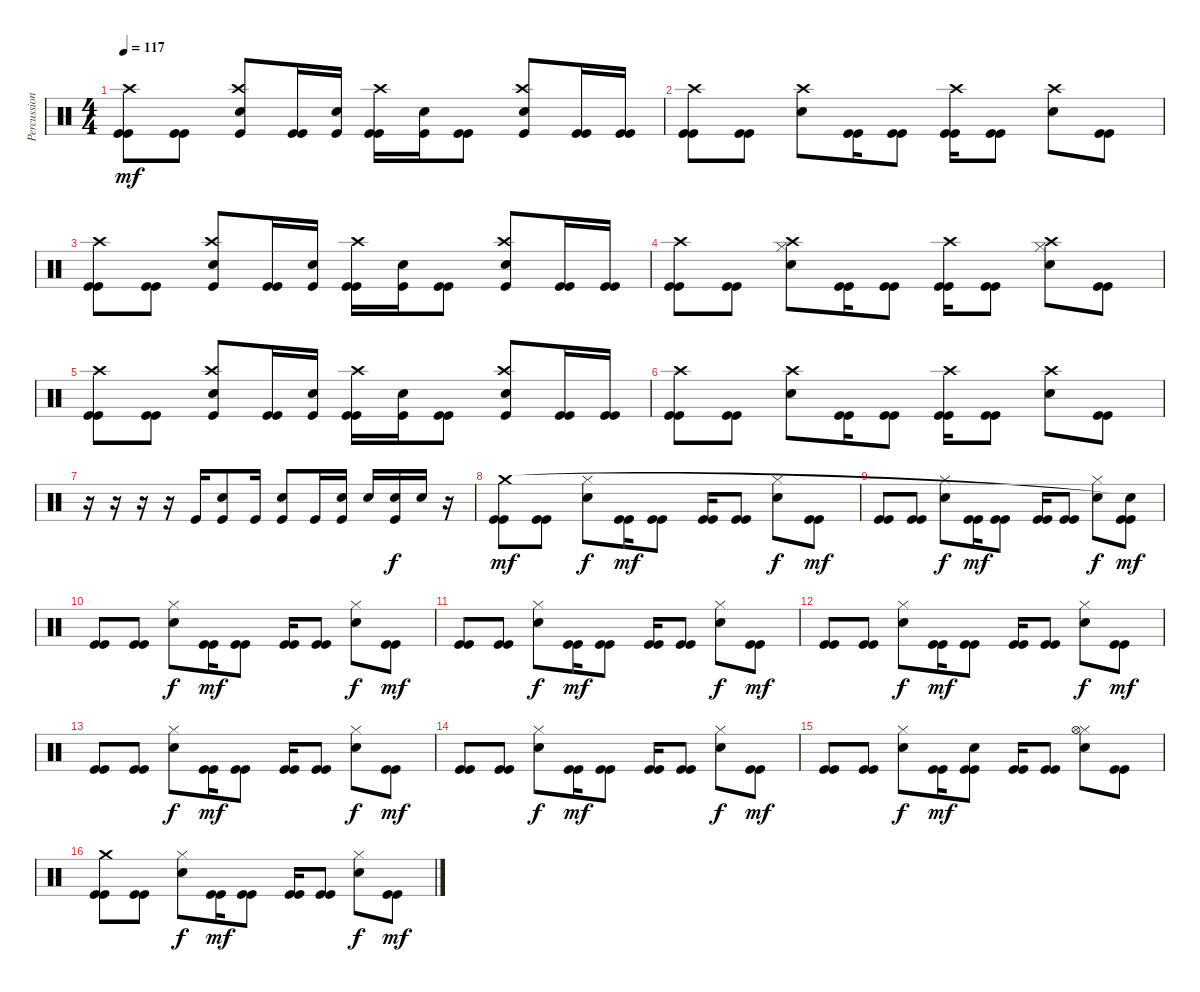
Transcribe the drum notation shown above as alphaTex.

\track ("Percussion" "Percussion") {instrument percussion}
\staff {score}
\articulation defaults
\ts (4 4)
\tempo 117
\clef neutral
\ks c
("Kick (hit)" "Kick (hit)" "Crash high (hit)").8{dy mf} ("Kick (hit)" "Kick (hit)").8 ("Kick (hit)" "Electric Snare (hit)" "Crash high (hit)").8 ("Kick (hit)" "Kick (hit)").16 ("Kick (hit)" "Electric Snare (hit)").16 ("Kick (hit)" "Kick (hit)" "Crash high (hit)").16 ("Kick (hit)" "Electric Snare (hit)").16 ("Kick (hit)" "Kick (hit)").8 ("Kick (hit)" "Electric Snare (hit)" "Crash high (hit)").8 ("Kick (hit)" "Kick (hit)").16 ("Kick (hit)" "Kick (hit)").16 |
("Kick (hit)" "Kick (hit)" "Crash high (hit)").8 ("Kick (hit)" "Kick (hit)").8 ("Electric Snare (hit)" "Crash high (hit)").8 ("Kick (hit)" "Kick (hit)").16 ("Kick (hit)" "Kick (hit)").8 ("Kick (hit)" "Kick (hit)" "Crash high (hit)").16 ("Kick (hit)" "Kick (hit)").8 ("Electric Snare (hit)" "Crash high (hit)").8 ("Kick (hit)" "Kick (hit)").8 |
("Crash high (hit)" "Kick (hit)" "Kick (hit)").8 ("Kick (hit)" "Kick (hit)").8 ("Crash high (hit)" "Kick (hit)" "Electric Snare (hit)").8 ("Kick (hit)" "Kick (hit)").16 ("Kick (hit)" "Electric Snare (hit)").16 ("Crash high (hit)" "Kick (hit)" "Kick (hit)").16 ("Kick (hit)" "Electric Snare (hit)").16 ("Kick (hit)" "Kick (hit)").8 ("Crash high (hit)" "Kick (hit)" "Electric Snare (hit)").8 ("Kick (hit)" "Kick (hit)").16 ("Kick (hit)" "Kick (hit)").16 |
("Kick (hit)" "Kick (hit)" "Crash high (hit)").8 ("Kick (hit)" "Kick (hit)").8 ("Electric Snare (hit)" "Hi-Hat (closed)" "Crash high (hit)").8 ("Kick (hit)" "Kick (hit)").16 ("Kick (hit)" "Kick (hit)").8 ("Kick (hit)" "Kick (hit)" "Crash high (hit)").16 ("Kick (hit)" "Kick (hit)").8 ("Electric Snare (hit)" "Hi-Hat (closed)" "Crash high (hit)").8 ("Kick (hit)" "Kick (hit)").8 |
("Kick (hit)" "Kick (hit)" "Crash high (hit)").8 ("Kick (hit)" "Kick (hit)").8 ("Kick (hit)" "Electric Snare (hit)" "Crash high (hit)").8 ("Kick (hit)" "Kick (hit)").16 ("Kick (hit)" "Electric Snare (hit)").16 ("Kick (hit)" "Kick (hit)" "Crash high (hit)").16 ("Kick (hit)" "Electric Snare (hit)").16 ("Kick (hit)" "Kick (hit)").8 ("Kick (hit)" "Electric Snare (hit)" "Crash high (hit)").8 ("Kick (hit)" "Kick (hit)").16 ("Kick (hit)" "Kick (hit)").16 |
("Kick (hit)" "Kick (hit)" "Crash high (hit)").8 ("Kick (hit)" "Kick (hit)").8 ("Electric Snare (hit)" "Crash high (hit)").8 ("Kick (hit)" "Kick (hit)").16 ("Kick (hit)" "Kick (hit)").8 ("Kick (hit)" "Kick (hit)" "Crash high (hit)").16 ("Kick (hit)" "Kick (hit)").8 ("Electric Snare (hit)" "Crash high (hit)").8 ("Kick (hit)" "Kick (hit)").8 |
r.16 r.16 r.16 r.16 "Kick (hit)".16 ("Electric Snare (hit)" "Kick (hit)").8 "Kick (hit)".16 ("Electric Snare (hit)" "Kick (hit)").8 "Kick (hit)".16 ("Electric Snare (hit)" "Kick (hit)").16 "Electric Snare (hit)".16 ("Electric Snare (hit)" "Kick (hit)").16{dy f} "Electric Snare (hit)".16 r.16 |
("Kick (hit)" "Kick (hit)" "Crash medium (hit)").8{dy mf} ("Kick (hit)" "Kick (hit)").8 ("Electric Snare (hit)" "Hi-Hat (closed)").8{dy f} ("Kick (hit)" "Kick (hit)").16{dy mf} ("Kick (hit)" "Kick (hit)").8 ("Kick (hit)" "Kick (hit)").16 ("Kick (hit)" "Kick (hit)").8 ("Electric Snare (hit)" "Hi-Hat (closed)").8{dy f} ("Kick (hit)" "Kick (hit)").8{dy mf} |
("Kick (hit)" "Kick (hit)").8 ("Kick (hit)" "Kick (hit)").8 ("Electric Snare (hit)" "Hi-Hat (closed)").8{dy f} ("Kick (hit)" "Kick (hit)").16{dy mf} ("Kick (hit)" "Kick (hit)").8 ("Kick (hit)" "Kick (hit)").16 ("Kick (hit)" "Kick (hit)").8 ("Electric Snare (hit)" "Hi-Hat (closed)").8{dy f} ("Kick (hit)" "Kick (hit)" "Snare (hit)"{t}).8{dy mf} |
("Kick (hit)" "Kick (hit)").8 ("Kick (hit)" "Kick (hit)").8 ("Electric Snare (hit)" "Hi-Hat (closed)").8{dy f} ("Kick (hit)" "Kick (hit)").16{dy mf} ("Kick (hit)" "Kick (hit)").8 ("Kick (hit)" "Kick (hit)").16 ("Kick (hit)" "Kick (hit)").8 ("Electric Snare (hit)" "Hi-Hat (closed)").8{dy f} ("Kick (hit)" "Kick (hit)").8{dy mf} |
("Kick (hit)" "Kick (hit)").8 ("Kick (hit)" "Kick (hit)").8 ("Electric Snare (hit)" "Hi-Hat (closed)").8{dy f} ("Kick (hit)" "Kick (hit)").16{dy mf} ("Kick (hit)" "Kick (hit)").8 ("Kick (hit)" "Kick (hit)").16 ("Kick (hit)" "Kick (hit)").8 ("Electric Snare (hit)" "Hi-Hat (closed)").8{dy f} ("Kick (hit)" "Kick (hit)").8{dy mf} |
("Kick (hit)" "Kick (hit)").8 ("Kick (hit)" "Kick (hit)").8 ("Electric Snare (hit)" "Hi-Hat (closed)").8{dy f} ("Kick (hit)" "Kick (hit)").16{dy mf} ("Kick (hit)" "Kick (hit)").8 ("Kick (hit)" "Kick (hit)").16 ("Kick (hit)" "Kick (hit)").8 ("Electric Snare (hit)" "Hi-Hat (closed)").8{dy f} ("Kick (hit)" "Kick (hit)").8{dy mf} |
("Kick (hit)" "Kick (hit)").8 ("Kick (hit)" "Kick (hit)").8 ("Electric Snare (hit)" "Hi-Hat (closed)").8{dy f} ("Kick (hit)" "Kick (hit)").16{dy mf} ("Kick (hit)" "Kick (hit)").8 ("Kick (hit)" "Kick (hit)").16 ("Kick (hit)" "Kick (hit)").8 ("Electric Snare (hit)" "Hi-Hat (closed)").8{dy f} ("Kick (hit)" "Kick (hit)").8{dy mf} |
("Kick (hit)" "Kick (hit)").8 ("Kick (hit)" "Kick (hit)").8 ("Electric Snare (hit)" "Hi-Hat (closed)").8{dy f} ("Kick (hit)" "Kick (hit)").16{dy mf} ("Kick (hit)" "Kick (hit)").8 ("Kick (hit)" "Kick (hit)").16 ("Kick (hit)" "Kick (hit)").8 ("Electric Snare (hit)" "Hi-Hat (closed)").8{dy f} ("Kick (hit)" "Kick (hit)").8{dy mf} |
("Kick (hit)" "Kick (hit)").8 ("Kick (hit)" "Kick (hit)").8 ("Electric Snare (hit)" "Hi-Hat (closed)").8{dy f} ("Kick (hit)" "Kick (hit)").16{dy mf} ("Kick (hit)" "Kick (hit)" "Electric Snare (hit)").8 ("Kick (hit)" "Kick (hit)").16 ("Kick (hit)" "Kick (hit)").8 ("Electric Snare (hit)" "Hi-Hat (closed)" "Hi-Hat (open)").8 ("Kick (hit)" "Kick (hit)").8 |
("Kick (hit)" "Kick (hit)" "Crash medium (hit)").8 ("Kick (hit)" "Kick (hit)").8 ("Electric Snare (hit)" "Hi-Hat (closed)").8{dy f} ("Kick (hit)" "Kick (hit)").16{dy mf} ("Kick (hit)" "Kick (hit)").8 ("Kick (hit)" "Kick (hit)").16 ("Kick (hit)" "Kick (hit)").8 ("Electric Snare (hit)" "Hi-Hat (closed)").8{dy f} ("Kick (hit)" "Kick (hit)").8{dy mf}
